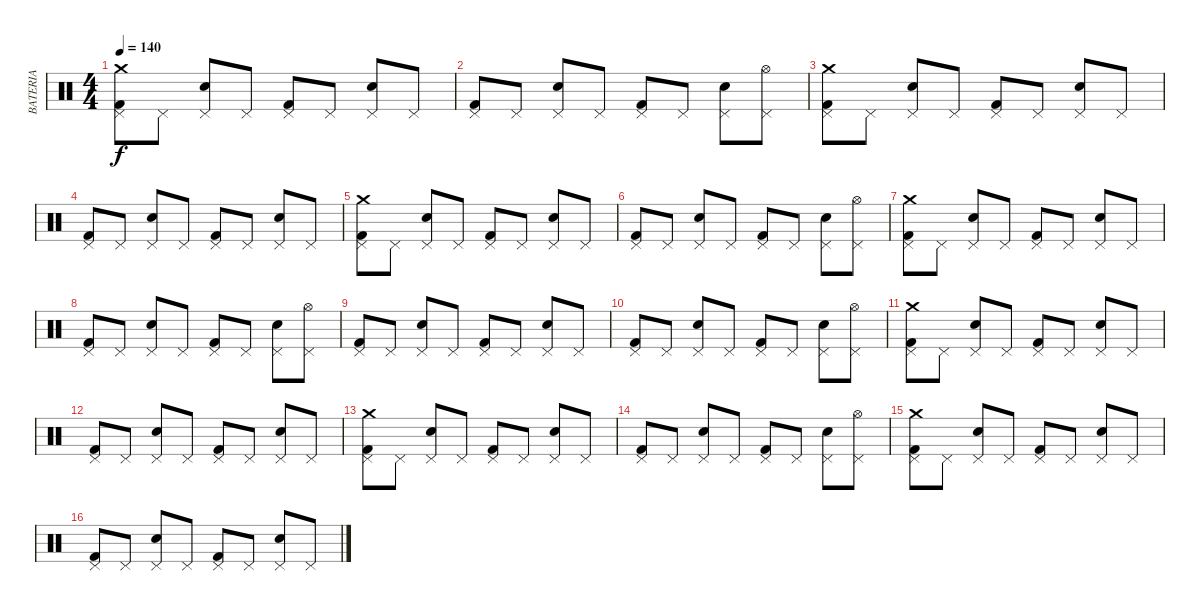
\track ("BATERIA" "BATERIA") {instrument percussion}
\staff {score}
\articulation defaults
\ts (4 4)
\tempo 140
\clef neutral
\ks c
("Kick (hit) 2" "Pedal Hi-Hat (hit)" "Crash medium (hit)").8{dy f} "Pedal Hi-Hat (hit)".8 ("Snare (hit) 2" "Pedal Hi-Hat (hit)").8 "Pedal Hi-Hat (hit)".8 ("Kick (hit) 2" "Pedal Hi-Hat (hit)").8 "Pedal Hi-Hat (hit)".8 ("Snare (hit) 2" "Pedal Hi-Hat (hit)").8 "Pedal Hi-Hat (hit)".8 |
("Kick (hit) 2" "Pedal Hi-Hat (hit)").8 "Pedal Hi-Hat (hit)".8 ("Snare (hit) 2" "Pedal Hi-Hat (hit)").8 "Pedal Hi-Hat (hit)".8 ("Kick (hit) 2" "Pedal Hi-Hat (hit)").8 "Pedal Hi-Hat (hit)".8 ("Snare (hit) 2" "Pedal Hi-Hat (hit)").8 ("Pedal Hi-Hat (hit)" "Hi-Hat (open)").8 |
("Kick (hit) 2" "Pedal Hi-Hat (hit)" "Crash medium (hit)").8 "Pedal Hi-Hat (hit)".8 ("Snare (hit) 2" "Pedal Hi-Hat (hit)").8 "Pedal Hi-Hat (hit)".8 ("Kick (hit) 2" "Pedal Hi-Hat (hit)").8 "Pedal Hi-Hat (hit)".8 ("Snare (hit) 2" "Pedal Hi-Hat (hit)").8 "Pedal Hi-Hat (hit)".8 |
("Kick (hit) 2" "Pedal Hi-Hat (hit)").8 "Pedal Hi-Hat (hit)".8 ("Snare (hit) 2" "Pedal Hi-Hat (hit)").8 "Pedal Hi-Hat (hit)".8 ("Kick (hit) 2" "Pedal Hi-Hat (hit)").8 "Pedal Hi-Hat (hit)".8 ("Snare (hit) 2" "Pedal Hi-Hat (hit)").8 "Pedal Hi-Hat (hit)".8 |
("Kick (hit) 2" "Pedal Hi-Hat (hit)" "Crash medium (hit)").8 "Pedal Hi-Hat (hit)".8 ("Snare (hit) 2" "Pedal Hi-Hat (hit)").8 "Pedal Hi-Hat (hit)".8 ("Kick (hit) 2" "Pedal Hi-Hat (hit)").8 "Pedal Hi-Hat (hit)".8 ("Snare (hit) 2" "Pedal Hi-Hat (hit)").8 "Pedal Hi-Hat (hit)".8 |
("Kick (hit) 2" "Pedal Hi-Hat (hit)").8 "Pedal Hi-Hat (hit)".8 ("Snare (hit) 2" "Pedal Hi-Hat (hit)").8 "Pedal Hi-Hat (hit)".8 ("Kick (hit) 2" "Pedal Hi-Hat (hit)").8 "Pedal Hi-Hat (hit)".8 ("Snare (hit) 2" "Pedal Hi-Hat (hit)").8 ("Pedal Hi-Hat (hit)" "Hi-Hat (open)").8 |
("Kick (hit) 2" "Pedal Hi-Hat (hit)" "Crash medium (hit)").8 "Pedal Hi-Hat (hit)".8 ("Snare (hit) 2" "Pedal Hi-Hat (hit)").8 "Pedal Hi-Hat (hit)".8 ("Kick (hit) 2" "Pedal Hi-Hat (hit)").8 "Pedal Hi-Hat (hit)".8 ("Snare (hit) 2" "Pedal Hi-Hat (hit)").8 "Pedal Hi-Hat (hit)".8 |
("Kick (hit) 2" "Pedal Hi-Hat (hit)").8 "Pedal Hi-Hat (hit)".8 ("Snare (hit) 2" "Pedal Hi-Hat (hit)").8 "Pedal Hi-Hat (hit)".8 ("Kick (hit) 2" "Pedal Hi-Hat (hit)").8 "Pedal Hi-Hat (hit)".8 ("Snare (hit) 2" "Pedal Hi-Hat (hit)").8 ("Pedal Hi-Hat (hit)" "Hi-Hat (open)").8 |
("Kick (hit) 2" "Pedal Hi-Hat (hit)").8 "Pedal Hi-Hat (hit)".8 ("Snare (hit) 2" "Pedal Hi-Hat (hit)").8 "Pedal Hi-Hat (hit)".8 ("Kick (hit) 2" "Pedal Hi-Hat (hit)").8 "Pedal Hi-Hat (hit)".8 ("Snare (hit) 2" "Pedal Hi-Hat (hit)").8 "Pedal Hi-Hat (hit)".8 |
("Kick (hit) 2" "Pedal Hi-Hat (hit)").8 "Pedal Hi-Hat (hit)".8 ("Snare (hit) 2" "Pedal Hi-Hat (hit)").8 "Pedal Hi-Hat (hit)".8 ("Kick (hit) 2" "Pedal Hi-Hat (hit)").8 "Pedal Hi-Hat (hit)".8 ("Snare (hit) 2" "Pedal Hi-Hat (hit)").8 ("Pedal Hi-Hat (hit)" "Hi-Hat (open)").8 |
("Kick (hit) 2" "Pedal Hi-Hat (hit)" "Crash medium (hit)").8 "Pedal Hi-Hat (hit)".8 ("Snare (hit) 2" "Pedal Hi-Hat (hit)").8 "Pedal Hi-Hat (hit)".8 ("Kick (hit) 2" "Pedal Hi-Hat (hit)").8 "Pedal Hi-Hat (hit)".8 ("Snare (hit) 2" "Pedal Hi-Hat (hit)").8 "Pedal Hi-Hat (hit)".8 |
("Kick (hit) 2" "Pedal Hi-Hat (hit)").8 "Pedal Hi-Hat (hit)".8 ("Snare (hit) 2" "Pedal Hi-Hat (hit)").8 "Pedal Hi-Hat (hit)".8 ("Kick (hit) 2" "Pedal Hi-Hat (hit)").8 "Pedal Hi-Hat (hit)".8 ("Snare (hit) 2" "Pedal Hi-Hat (hit)").8 "Pedal Hi-Hat (hit)".8 |
("Kick (hit) 2" "Pedal Hi-Hat (hit)" "Crash medium (hit)").8 "Pedal Hi-Hat (hit)".8 ("Snare (hit) 2" "Pedal Hi-Hat (hit)").8 "Pedal Hi-Hat (hit)".8 ("Kick (hit) 2" "Pedal Hi-Hat (hit)").8 "Pedal Hi-Hat (hit)".8 ("Snare (hit) 2" "Pedal Hi-Hat (hit)").8 "Pedal Hi-Hat (hit)".8 |
("Kick (hit) 2" "Pedal Hi-Hat (hit)").8 "Pedal Hi-Hat (hit)".8 ("Snare (hit) 2" "Pedal Hi-Hat (hit)").8 "Pedal Hi-Hat (hit)".8 ("Kick (hit) 2" "Pedal Hi-Hat (hit)").8 "Pedal Hi-Hat (hit)".8 ("Snare (hit) 2" "Pedal Hi-Hat (hit)").8 ("Pedal Hi-Hat (hit)" "Hi-Hat (open)").8 |
("Kick (hit) 2" "Pedal Hi-Hat (hit)" "Crash medium (hit)").8 "Pedal Hi-Hat (hit)".8 ("Snare (hit) 2" "Pedal Hi-Hat (hit)").8 "Pedal Hi-Hat (hit)".8 ("Kick (hit) 2" "Pedal Hi-Hat (hit)").8 "Pedal Hi-Hat (hit)".8 ("Snare (hit) 2" "Pedal Hi-Hat (hit)").8 "Pedal Hi-Hat (hit)".8 |
("Kick (hit) 2" "Pedal Hi-Hat (hit)").8 "Pedal Hi-Hat (hit)".8 ("Snare (hit) 2" "Pedal Hi-Hat (hit)").8 "Pedal Hi-Hat (hit)".8 ("Kick (hit) 2" "Pedal Hi-Hat (hit)").8 "Pedal Hi-Hat (hit)".8 ("Snare (hit) 2" "Pedal Hi-Hat (hit)").8 "Pedal Hi-Hat (hit)".8
